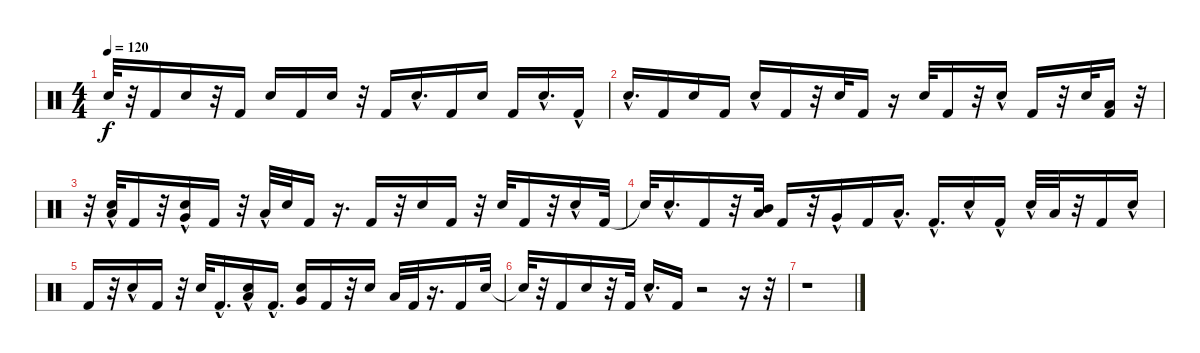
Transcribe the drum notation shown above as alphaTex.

\track "" {instrument percussion}
\staff {score}
\articulation defaults
\ts (4 4)
\tempo 120
\clef neutral
\ks c "Snare (hit)"{t}.32{dy f}
r.32 "Kick (hit) 2".16 "Snare (hit) 2".16 r.32 "Kick (hit) 2".16 "Snare (hit) 2".16 "Kick (hit) 2".16 "Snare (hit) 2".16 r.32 "Kick (hit) 2".16 "Snare (hit) 2"{hac}.16{d} "Kick (hit) 2".16 "Snare (hit) 2".16 "Kick (hit) 2".16 "Snare (hit) 2"{hac}.16{d} "Kick (hit) 2"{hac}.16 |
"Electric Snare (hit)"{hac}.16{d} "Kick (hit) 2".16 "Snare (hit) 2".16 "Kick (hit) 2".16 "Snare (hit) 2"{hac}.16 "Kick (hit) 2".16 r.32 "Snare (hit) 2".32 "Kick (hit) 2".16 r.16 "Snare (hit) 2".32 "Kick (hit) 2".16 r.32 "Snare (hit) 2"{hac}.16 "Kick (hit) 2".16 r.32 "Snare (hit) 2".32 ("Low Tom (hit)" "Kick (hit) 2").16 r.32 |
r.32 ("Snare (hit) 2"{hac} "Low Tom (hit)"{hac}).32 "Kick (hit) 2".16 r.32 ("Snare (hit) 2"{hac} "Very Low Tom (hit)"{hac}).16 "Kick (hit) 2".16 r.32 "Low Floor Tom (hit)"{hac}.32 "Snare (hit) 2".32 "Kick (hit) 2".16 r.16{d} "Kick (hit) 2".16 r.32 "Electric Snare (hit)".16 "Kick (hit) 2".16 r.32 "Electric Snare (hit)".32 "Kick (hit) 2".16 r.32 "Electric Snare (hit)"{hac}.16 "Kick (hit) 2".32 |
"Snare (hit)"{t}.32 "Electric Snare (hit)"{hac}.16{d} "Kick (hit) 2".16 r.32 ("Mid Tom (hit)" "Low Tom (hit)").32 "Kick (hit) 2".16 r.32 "Very Low Tom (hit)"{hac}.16 "Kick (hit) 2".16 "Low Floor Tom (hit)"{hac}.16{d} "Kick (hit) 2"{hac}.16{d} "Snare (hit) 2"{hac}.16 "Kick (hit) 2"{hac}.16 "Snare (hit) 2"{hac}.32 "Low Tom (hit)".32 r.32 "Kick (hit) 2".16 "Snare (hit) 2"{hac}.16 |
"Kick (hit) 2".16 r.32 "Snare (hit) 2"{hac}.16 "Kick (hit) 2".16 r.32 "Snare (hit) 2".32 "Kick (hit) 2"{hac}.16{d} ("Low Tom (hit)"{hac} "Snare (hit) 2").16 "Kick (hit) 2"{hac}.16{d} ("Very Low Tom (hit)" "Snare (hit) 2").16 "Kick (hit) 2".16 r.32 "Snare (hit) 2".16 "Low Floor Tom (hit)".32 "Kick (hit) 2".32 r.16{d} "Kick (hit) 2".16 "Snare (hit) 2".32 |
"Snare (hit)"{t}.32 r.32 "Kick (hit) 2".16 "Snare (hit) 2".16 r.32 "Kick (hit) 2".32 "Snare (hit) 2"{hac}.16{d} "Kick (hit) 2".16 r.2 r.16 r.32 |
r.1
